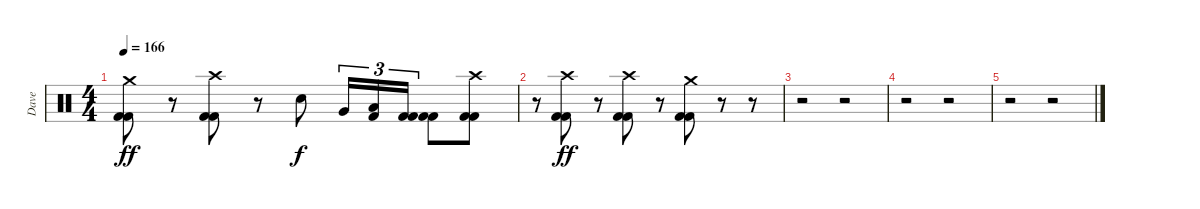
\track ("Dave" "Dave") {instrument percussion}
\staff {score}
\articulation defaults
\ts (4 4)
\tempo 166
\clef neutral
\ks c
("Crash medium (hit)" "Kick (hit) 2" "Kick (hit) 2").8{dy ff} r.8 ("Crash high (hit)" "Kick (hit) 2" "Kick (hit) 2").8 r.8 "Electric Snare (hit)".8{dy f} "Very Low Tom (hit)".16{tu (3 2)} ("Low Floor Tom (hit)" "Kick (hit) 2").16{tu (3 2)} ("Kick (hit) 2" "Kick (hit) 2").16{tu (3 2)} ("Kick (hit) 2" "Kick (hit) 2").8 ("Crash high (hit)" "Kick (hit) 2" "Kick (hit) 2").8 |
r.8 ("Crash high (hit)" "Kick (hit) 2" "Kick (hit) 2").8{dy ff} r.8 ("Crash high (hit)" "Kick (hit) 2" "Kick (hit) 2").8 r.8 ("Crash medium (hit)" "Kick (hit) 2" "Kick (hit) 2").8 r.8 r.8 |
r.2 r.2{volume 0} |
r.2 r.2 |
r.2 r.2
